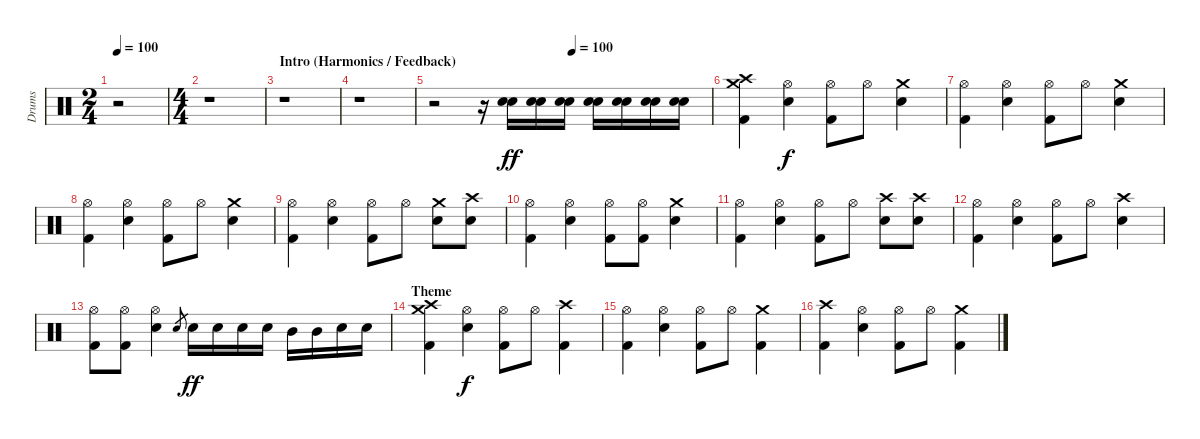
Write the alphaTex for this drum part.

\track ("Drums" "Drums") {instrument percussion}
\staff {score}
\articulation defaults
\ts (2 4)
\tempo 100
\clef neutral
\ks c
r.2{dy ff} |
\ts (4 4)
r.1 |
\section ("" "Intro (Harmonics / Feedback)")
r.1 |
r.1 |
\tempo (100 0.5)
r.2 r.16 ("Electric Snare (hit)" "Snare (hit) 2").16 ("Electric Snare (hit)" "Snare (hit) 2").16 ("Electric Snare (hit)" "Snare (hit) 2").16 ("Electric Snare (hit)" "Snare (hit) 2").16 ("Electric Snare (hit)" "Snare (hit) 2").16 ("Electric Snare (hit)" "Snare (hit) 2").16 ("Electric Snare (hit)" "Snare (hit) 2").16 |
("Crash high (hit)" "Crash medium (hit)" "Kick (hit) 2").4 ("Hi-Hat (open)" "Snare (hit) 2").4{dy f} ("Hi-Hat (open)" "Kick (hit) 2").8 "Hi-Hat (open)".8 ("Crash medium (hit)" "Snare (hit) 2").4 |
("Hi-Hat (open)" "Kick (hit) 2").4 ("Hi-Hat (open)" "Snare (hit) 2").4 ("Hi-Hat (open)" "Kick (hit) 2").8 "Hi-Hat (open)".8 ("Crash medium (hit)" "Snare (hit) 2").4 |
("Hi-Hat (open)" "Kick (hit) 2").4 ("Hi-Hat (open)" "Snare (hit) 2").4 ("Hi-Hat (open)" "Kick (hit) 2").8 "Hi-Hat (open)".8 ("Crash medium (hit)" "Snare (hit) 2").4 |
("Hi-Hat (open)" "Kick (hit) 2").4 ("Hi-Hat (open)" "Snare (hit) 2").4 ("Hi-Hat (open)" "Kick (hit) 2").8 "Hi-Hat (open)".8 ("Crash medium (hit)" "Snare (hit) 2").8 ("Crash high (hit)" "Snare (hit) 2").8 |
("Hi-Hat (open)" "Kick (hit) 2").4 ("Hi-Hat (open)" "Snare (hit) 2").4 ("Hi-Hat (open)" "Kick (hit) 2").8 ("Hi-Hat (open)" "Kick (hit) 2").8 ("Crash medium (hit)" "Snare (hit) 2").4 |
("Hi-Hat (open)" "Kick (hit) 2").4 ("Hi-Hat (open)" "Snare (hit) 2").4 ("Hi-Hat (open)" "Kick (hit) 2").8 "Hi-Hat (open)".8 ("Crash high (hit)" "Snare (hit) 2").8 ("Crash high (hit)" "Snare (hit) 2").8 |
("Hi-Hat (open)" "Kick (hit) 2").4 ("Hi-Hat (open)" "Snare (hit) 2").4 ("Hi-Hat (open)" "Kick (hit) 2").8 "Hi-Hat (open)".8 ("Crash high (hit)" "Snare (hit) 2").4 |
("Hi-Hat (open)" "Kick (hit) 2").8 ("Hi-Hat (open)" "Kick (hit) 2").8 ("Hi-Hat (open)" "Electric Snare (hit)").4 "Snare (hit) 2".8{gr} "Snare (hit) 2".16{dy ff} "Snare (hit) 2".16 "Snare (hit) 2".16 "Snare (hit) 2".16 "Mid Tom (hit)".16 "Mid Tom (hit)".16 "Snare (hit) 2".16 "Snare (hit) 2".16 |
\section ("" "Theme")
("Crash high (hit)" "Crash medium (hit)" "Kick (hit) 2").4 ("Hi-Hat (open)" "Snare (hit) 2").4{dy f} ("Hi-Hat (open)" "Kick (hit) 2").8 "Hi-Hat (open)".8 ("Crash high (hit)" "Kick (hit) 2").4 |
("Hi-Hat (open)" "Kick (hit) 2").4 ("Hi-Hat (open)" "Snare (hit) 2").4 ("Hi-Hat (open)" "Kick (hit) 2").8 "Hi-Hat (open)".8 ("Crash medium (hit)" "Kick (hit) 2").4 |
("Crash high (hit)" "Kick (hit) 2").4 ("Hi-Hat (open)" "Snare (hit) 2").4 ("Hi-Hat (open)" "Kick (hit) 2").8 "Hi-Hat (open)".8 ("Crash medium (hit)" "Kick (hit) 2").4
